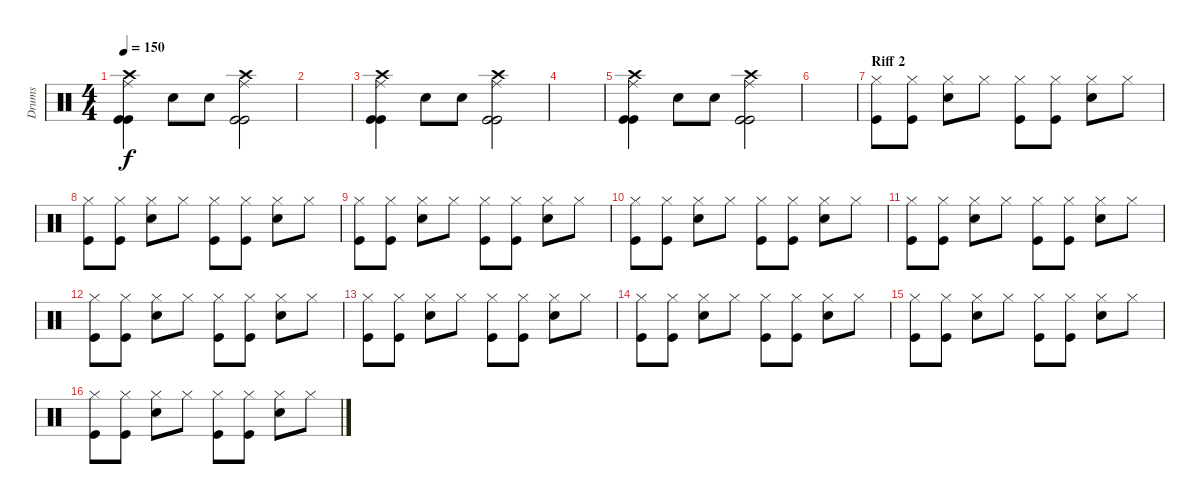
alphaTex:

\track ("Drums" "Drums") {instrument percussion}
\staff {score}
\articulation defaults
\ts (4 4)
\tempo 150
\clef neutral
\ks c
("Crash high (hit)" "Ride (middle)" "Kick (hit)" "Kick (hit)").4{dy f} "Electric Snare (hit)".8 "Electric Snare (hit)".8 ("Crash high (hit)" "Ride (middle)" "Kick (hit)" "Kick (hit)").2 |
|
("Crash high (hit)" "Ride (middle)" "Kick (hit)" "Kick (hit)").4 "Electric Snare (hit)".8 "Electric Snare (hit)".8 ("Crash high (hit)" "Ride (middle)" "Kick (hit)" "Kick (hit)").2 |
|
("Crash high (hit)" "Ride (middle)" "Kick (hit)" "Kick (hit)").4 "Electric Snare (hit)".8 "Electric Snare (hit)".8 ("Crash high (hit)" "Ride (middle)" "Kick (hit)" "Kick (hit)").2 |
|
\section ("" "Riff 2")
("Hi-Hat (closed)" "Kick (hit)").8 ("Hi-Hat (closed)" "Kick (hit)").8 ("Hi-Hat (closed)" "Snare (hit) 2").8 "Hi-Hat (closed)".8 ("Hi-Hat (closed)" "Kick (hit)").8 ("Hi-Hat (closed)" "Kick (hit)").8 ("Hi-Hat (closed)" "Snare (hit) 2").8 "Hi-Hat (closed)".8 |
("Hi-Hat (closed)" "Kick (hit)").8 ("Hi-Hat (closed)" "Kick (hit)").8 ("Hi-Hat (closed)" "Snare (hit) 2").8 "Hi-Hat (closed)".8 ("Hi-Hat (closed)" "Kick (hit)").8 ("Hi-Hat (closed)" "Kick (hit)").8 ("Hi-Hat (closed)" "Snare (hit) 2").8 "Hi-Hat (closed)".8 |
("Hi-Hat (closed)" "Kick (hit)").8 ("Hi-Hat (closed)" "Kick (hit)").8 ("Hi-Hat (closed)" "Snare (hit) 2").8 "Hi-Hat (closed)".8 ("Hi-Hat (closed)" "Kick (hit)").8 ("Hi-Hat (closed)" "Kick (hit)").8 ("Hi-Hat (closed)" "Snare (hit) 2").8 "Hi-Hat (closed)".8 |
("Hi-Hat (closed)" "Kick (hit)").8 ("Hi-Hat (closed)" "Kick (hit)").8 ("Hi-Hat (closed)" "Snare (hit) 2").8 "Hi-Hat (closed)".8 ("Hi-Hat (closed)" "Kick (hit)").8 ("Hi-Hat (closed)" "Kick (hit)").8 ("Hi-Hat (closed)" "Snare (hit) 2").8 "Hi-Hat (closed)".8 |
("Hi-Hat (closed)" "Kick (hit)").8 ("Hi-Hat (closed)" "Kick (hit)").8 ("Hi-Hat (closed)" "Snare (hit) 2").8 "Hi-Hat (closed)".8 ("Hi-Hat (closed)" "Kick (hit)").8 ("Hi-Hat (closed)" "Kick (hit)").8 ("Hi-Hat (closed)" "Snare (hit) 2").8 "Hi-Hat (closed)".8 |
("Hi-Hat (closed)" "Kick (hit)").8 ("Hi-Hat (closed)" "Kick (hit)").8 ("Hi-Hat (closed)" "Snare (hit) 2").8 "Hi-Hat (closed)".8 ("Hi-Hat (closed)" "Kick (hit)").8 ("Hi-Hat (closed)" "Kick (hit)").8 ("Hi-Hat (closed)" "Snare (hit) 2").8 "Hi-Hat (closed)".8 |
("Hi-Hat (closed)" "Kick (hit)").8 ("Hi-Hat (closed)" "Kick (hit)").8 ("Hi-Hat (closed)" "Snare (hit) 2").8 "Hi-Hat (closed)".8 ("Hi-Hat (closed)" "Kick (hit)").8 ("Hi-Hat (closed)" "Kick (hit)").8 ("Hi-Hat (closed)" "Snare (hit) 2").8 "Hi-Hat (closed)".8 |
("Hi-Hat (closed)" "Kick (hit)").8 ("Hi-Hat (closed)" "Kick (hit)").8 ("Hi-Hat (closed)" "Snare (hit) 2").8 "Hi-Hat (closed)".8 ("Hi-Hat (closed)" "Kick (hit)").8 ("Hi-Hat (closed)" "Kick (hit)").8 ("Hi-Hat (closed)" "Snare (hit) 2").8 "Hi-Hat (closed)".8 |
("Hi-Hat (closed)" "Kick (hit)").8 ("Hi-Hat (closed)" "Kick (hit)").8 ("Hi-Hat (closed)" "Snare (hit) 2").8 "Hi-Hat (closed)".8 ("Hi-Hat (closed)" "Kick (hit)").8 ("Hi-Hat (closed)" "Kick (hit)").8 ("Hi-Hat (closed)" "Snare (hit) 2").8 "Hi-Hat (closed)".8 |
("Hi-Hat (closed)" "Kick (hit)").8 ("Hi-Hat (closed)" "Kick (hit)").8 ("Hi-Hat (closed)" "Snare (hit) 2").8 "Hi-Hat (closed)".8 ("Hi-Hat (closed)" "Kick (hit)").8 ("Hi-Hat (closed)" "Kick (hit)").8 ("Hi-Hat (closed)" "Snare (hit) 2").8 "Hi-Hat (closed)".8
